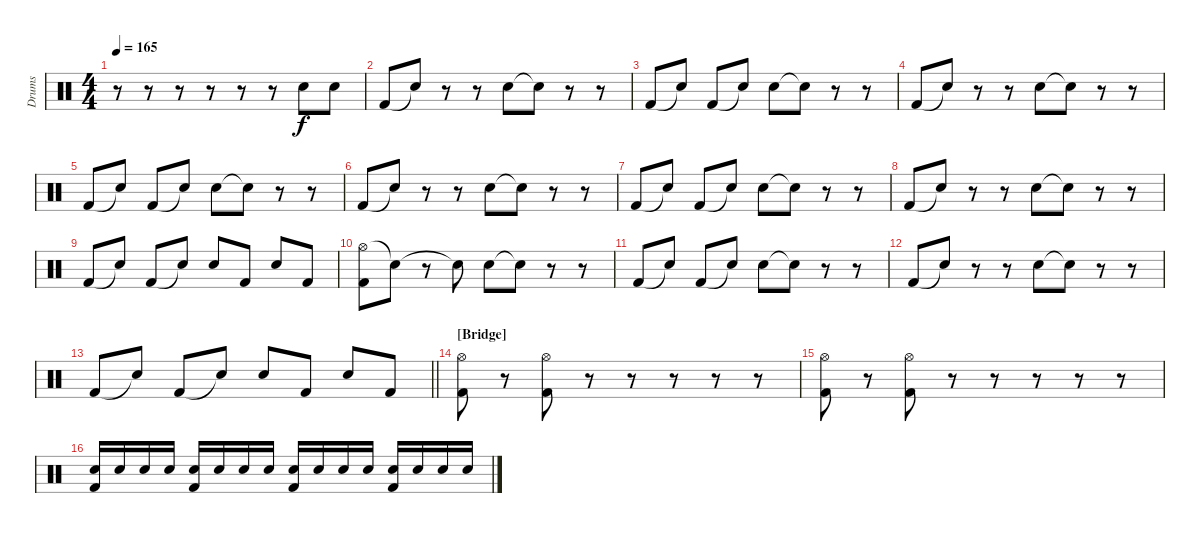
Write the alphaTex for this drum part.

\track ("Drums" "Drums") {instrument percussion}
\staff {score}
\articulation defaults
\ts (4 4)
\tempo 165
\clef neutral
\ks c
r.8{dy f} r.8 r.8 r.8 r.8 r.8 "Electric Snare (hit)".8 "Electric Snare (hit)".8 |
"Kick (hit) 2".8 "Snare (hit)"{t}.8 r.8 r.8 "Electric Snare (hit)".8 "Snare (hit)"{t}.8 r.8 r.8 |
"Kick (hit) 2".8 "Snare (hit)"{t}.8 "Kick (hit) 2".8 "Snare (hit)"{t}.8 "Electric Snare (hit)".8 "Snare (hit)"{t}.8 r.8 r.8 |
"Kick (hit) 2".8 "Snare (hit)"{t}.8 r.8 r.8 "Electric Snare (hit)".8 "Snare (hit)"{t}.8 r.8 r.8 |
"Kick (hit) 2".8 "Snare (hit)"{t}.8 "Kick (hit) 2".8 "Snare (hit)"{t}.8 "Electric Snare (hit)".8 "Snare (hit)"{t}.8 r.8 r.8 |
"Kick (hit) 2".8 "Snare (hit)"{t}.8 r.8 r.8 "Electric Snare (hit)".8 "Snare (hit)"{t}.8 r.8 r.8 |
"Kick (hit) 2".8 "Snare (hit)"{t}.8 "Kick (hit) 2".8 "Snare (hit)"{t}.8 "Electric Snare (hit)".8 "Snare (hit)"{t}.8 r.8 r.8 |
"Kick (hit) 2".8 "Snare (hit)"{t}.8 r.8 r.8 "Electric Snare (hit)".8 "Snare (hit)"{t}.8 r.8 r.8 |
"Kick (hit) 2".8 "Snare (hit)"{t}.8 "Kick (hit) 2".8 "Snare (hit)"{t}.8 "Electric Snare (hit)".8 "Kick (hit) 2".8 "Electric Snare (hit)".8 "Kick (hit) 2".8 |
("Hi-Hat (open)" "Kick (hit) 2").8 "Snare (hit)"{t}.8 r.8 "Snare (hit)"{t}.8 "Electric Snare (hit)".8 "Snare (hit)"{t}.8 r.8 r.8 |
"Kick (hit) 2".8 "Snare (hit)"{t}.8 "Kick (hit) 2".8 "Snare (hit)"{t}.8 "Electric Snare (hit)".8 "Snare (hit)"{t}.8 r.8 r.8 |
"Kick (hit) 2".8 "Snare (hit)"{t}.8 r.8 r.8 "Electric Snare (hit)".8 "Snare (hit)"{t}.8 r.8 r.8 |
\barLineRight lightlight "Kick (hit) 2".8 "Snare (hit)"{t}.8 "Kick (hit) 2".8 "Snare (hit)"{t}.8 "Electric Snare (hit)".8 "Kick (hit) 2".8 "Electric Snare (hit)".8 "Kick (hit) 2".8
|
\section ("" "[Bridge]")
("Hi-Hat (open)" "Kick (hit) 2").8 r.8 ("Hi-Hat (open)" "Kick (hit) 2").8 r.8 r.8 r.8 r.8 r.8 |
("Hi-Hat (open)" "Kick (hit) 2").8 r.8 ("Hi-Hat (open)" "Kick (hit) 2").8 r.8 r.8 r.8 r.8 r.8 |
("Electric Snare (hit)" "Kick (hit) 2").16 "Electric Snare (hit)".16 "Electric Snare (hit)".16 "Electric Snare (hit)".16 ("Electric Snare (hit)" "Kick (hit) 2").16 "Electric Snare (hit)".16 "Electric Snare (hit)".16 "Electric Snare (hit)".16 ("Electric Snare (hit)" "Kick (hit) 2").16 "Electric Snare (hit)".16 "Electric Snare (hit)".16 "Electric Snare (hit)".16 ("Electric Snare (hit)" "Kick (hit) 2").16 "Electric Snare (hit)".16 "Electric Snare (hit)".16 "Electric Snare (hit)".16
